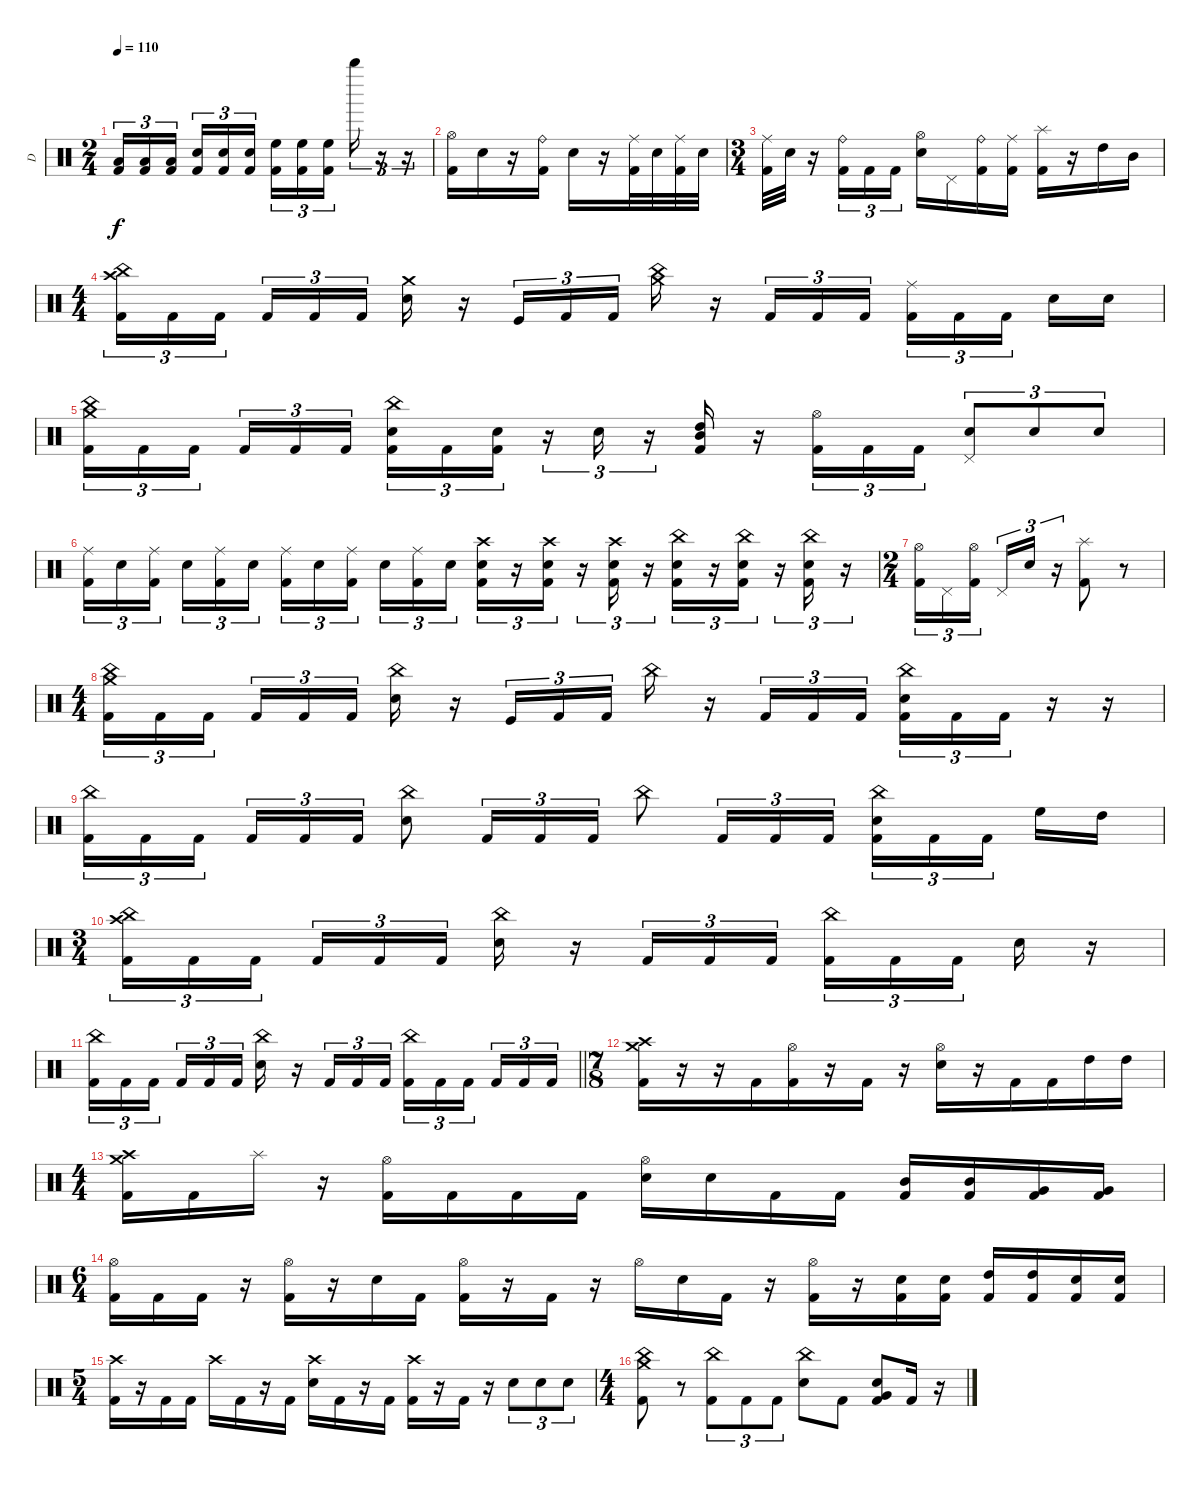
\track ("D" "D") {instrument percussion}
\staff {score}
\articulation defaults
\ts (2 4)
\tempo 110
\clef neutral
\ks c
("Low Tom (hit)" "Kick (hit) 2").16{tu (3 2) dy f} ("Low Tom (hit)" "Kick (hit) 2").16{tu (3 2)} ("Low Tom (hit)" "Kick (hit) 2").16{tu (3 2) beam splitsecondary} ("Electric Snare (hit)" "Kick (hit) 2").16{tu (3 2)} ("Electric Snare (hit)" "Kick (hit) 2").16{tu (3 2)} ("Electric Snare (hit)" "Kick (hit) 2").16{tu (3 2)} ("High Floor Tom (hit)" "Kick (hit) 2").16{tu (3 2)} ("High Floor Tom (hit)" "Kick (hit) 2").16{tu (3 2)} ("High Floor Tom (hit)" "Kick (hit) 2").16{tu (3 2) beam splitsecondary} "Whistle high (hit)".16{tu (3 2)} r.16{tu (3 2)} r.16{tu (3 2)} |
("Hi-Hat (open)" "Kick (hit) 2").16 "Electric Snare (hit)".16 r.16 ("Ride (bell)" "Kick (hit) 2").16 "Electric Snare (hit)".16 r.16 ("Ride (middle)" "Kick (hit) 2").32 "Electric Snare (hit)".32 ("Ride (middle)" "Kick (hit) 2").32 "Electric Snare (hit)".32 |
\ts (3 4)
("Ride (middle)" "Kick (hit) 2").32 "Electric Snare (hit)".32 r.16 ("Ride (bell)" "Kick (hit) 2").16{tu (3 2)} "Kick (hit) 2".16{tu (3 2)} "Kick (hit) 2".16{tu (3 2)} ("Hi-Hat (open)" "Electric Snare (hit)").16 "Pedal Hi-Hat (hit)".16 ("Ride (bell)" "Kick (hit) 2").16 ("Ride (middle)" "Kick (hit) 2").16 ("Splash (hit)" "Kick (hit) 2").16 r.16 "High Tom (hit)".16 "Mid Tom (hit)".16 |
\ts (4 4)
("China (hit)" "Crash high (hit)" "Kick (hit) 2").16{tu (3 2)} "Kick (hit) 2".16{tu (3 2)} "Kick (hit) 2".16{tu (3 2) beam splitsecondary} "Kick (hit) 2".16{tu (3 2)} "Kick (hit) 2".16{tu (3 2)} "Kick (hit) 2".16{tu (3 2)} ("Crash medium (hit)" "Electric Snare (hit)").16 r.16 "Kick (hit)".16{tu (3 2)} "Kick (hit) 2".16{tu (3 2)} "Kick (hit) 2".16{tu (3 2)} ("China (hit)" "Crash medium (hit)").16 r.16 "Kick (hit) 2".16{tu (3 2)} "Kick (hit) 2".16{tu (3 2)} "Kick (hit) 2".16{tu (3 2)} ("Ride (middle)" "Kick (hit) 2").16{tu (3 2)} "Kick (hit) 2".16{tu (3 2)} "Kick (hit) 2".16{tu (3 2) beam splitsecondary} "Electric Snare (hit)".16 "Electric Snare (hit)".16 |
("China (hit)" "Crash medium (hit)" "Kick (hit) 2").16{tu (3 2)} "Kick (hit) 2".16{tu (3 2)} "Kick (hit) 2".16{tu (3 2) beam splitsecondary} "Kick (hit) 2".16{tu (3 2)} "Kick (hit) 2".16{tu (3 2)} "Kick (hit) 2".16{tu (3 2)} ("China (hit)" "Electric Snare (hit)" "Kick (hit) 2").16{tu (3 2)} "Kick (hit) 2".16{tu (3 2)} ("Electric Snare (hit)" "Kick (hit) 2").16{tu (3 2)} r.16{tu (3 2)} "Electric Snare (hit)".16{tu (3 2)} r.16{tu (3 2)} ("High Tom (hit)" "Mid Tom (hit)" "Kick (hit) 2").16 r.16 ("Hi-Hat (open)" "Kick (hit) 2").16{tu (3 2)} "Kick (hit) 2".16{tu (3 2)} "Kick (hit) 2".16{tu (3 2)} ("Pedal Hi-Hat (hit)" "Electric Snare (hit)").8{tu (3 2)} "Electric Snare (hit)".8{tu (3 2)} "Electric Snare (hit)".8{tu (3 2)} |
("Ride (middle)" "Kick (hit) 2").16{tu (3 2)} "Electric Snare (hit)".16{tu (3 2)} ("Ride (middle)" "Kick (hit) 2").16{tu (3 2) beam splitsecondary} "Electric Snare (hit)".16{tu (3 2)} ("Ride (middle)" "Kick (hit) 2").16{tu (3 2)} "Electric Snare (hit)".16{tu (3 2)} ("Ride (middle)" "Kick (hit) 2").16{tu (3 2)} "Electric Snare (hit)".16{tu (3 2)} ("Ride (middle)" "Kick (hit) 2").16{tu (3 2) beam splitsecondary} "Electric Snare (hit)".16{tu (3 2)} ("Ride (middle)" "Kick (hit) 2").16{tu (3 2)} "Electric Snare (hit)".16{tu (3 2)} ("Crash high (hit)" "Electric Snare (hit)" "Kick (hit) 2").16{tu (3 2)} r.16{tu (3 2)} ("Crash high (hit)" "Electric Snare (hit)" "Kick (hit) 2").16{tu (3 2)} r.16{tu (3 2)} ("Crash high (hit)" "Electric Snare (hit)" "Kick (hit) 2").16{tu (3 2)} r.16{tu (3 2)} ("China (hit)" "Electric Snare (hit)" "Kick (hit) 2").16{tu (3 2)} r.16{tu (3 2)} ("China (hit)" "Electric Snare (hit)" "Kick (hit) 2").16{tu (3 2)} r.16{tu (3 2)} ("China (hit)" "Electric Snare (hit)" "Kick (hit) 2").16{tu (3 2)} r.16{tu (3 2)} |
\ts (2 4)
("Hi-Hat (open)" "Kick (hit) 2").16{tu (3 2)} "Pedal Hi-Hat (hit)".16{tu (3 2)} ("Hi-Hat (open)" "Kick (hit) 2").16{tu (3 2) beam splitsecondary} "Pedal Hi-Hat (hit)".16{tu (3 2)} "Electric Snare (hit)".16{tu (3 2)} r.16{tu (3 2)} ("Splash (hit)" "Kick (hit) 2").8 r.8 |
\ts (4 4)
("China (hit)" "Crash medium (hit)" "Kick (hit) 2").16{tu (3 2)} "Kick (hit) 2".16{tu (3 2)} "Kick (hit) 2".16{tu (3 2) beam splitsecondary} "Kick (hit) 2".16{tu (3 2)} "Kick (hit) 2".16{tu (3 2)} "Kick (hit) 2".16{tu (3 2)} ("China (hit)" "Electric Snare (hit)").16 r.16 "Kick (hit)".16{tu (3 2)} "Kick (hit) 2".16{tu (3 2)} "Kick (hit) 2".16{tu (3 2)} "China (hit)".16 r.16 "Kick (hit) 2".16{tu (3 2)} "Kick (hit) 2".16{tu (3 2)} "Kick (hit) 2".16{tu (3 2)} ("China (hit)" "Electric Snare (hit)" "Kick (hit) 2").16{tu (3 2)} "Kick (hit) 2".16{tu (3 2)} "Kick (hit) 2".16{tu (3 2)} r.16 r.16 |
("China (hit)" "Kick (hit) 2").16{tu (3 2)} "Kick (hit) 2".16{tu (3 2)} "Kick (hit) 2".16{tu (3 2) beam splitsecondary} "Kick (hit) 2".16{tu (3 2)} "Kick (hit) 2".16{tu (3 2)} "Kick (hit) 2".16{tu (3 2)} ("China (hit)" "Electric Snare (hit)").8 "Kick (hit) 2".16{tu (3 2)} "Kick (hit) 2".16{tu (3 2)} "Kick (hit) 2".16{tu (3 2)} "China (hit)".8 "Kick (hit) 2".16{tu (3 2)} "Kick (hit) 2".16{tu (3 2)} "Kick (hit) 2".16{tu (3 2)} ("China (hit)" "Electric Snare (hit)" "Kick (hit) 2").16{tu (3 2)} "Kick (hit) 2".16{tu (3 2)} "Kick (hit) 2".16{tu (3 2) beam splitsecondary} "High Floor Tom (hit)".16 "High Tom (hit)".16 |
\ts (3 4)
("China (hit)" "Crash high (hit)" "Kick (hit) 2").16{tu (3 2)} "Kick (hit) 2".16{tu (3 2)} "Kick (hit) 2".16{tu (3 2) beam splitsecondary} "Kick (hit) 2".16{tu (3 2)} "Kick (hit) 2".16{tu (3 2)} "Kick (hit) 2".16{tu (3 2)} ("China (hit)" "Electric Snare (hit)").16 r.16 "Kick (hit) 2".16{tu (3 2)} "Kick (hit) 2".16{tu (3 2)} "Kick (hit) 2".16{tu (3 2)} ("China (hit)" "Kick (hit) 2").16{tu (3 2)} "Kick (hit) 2".16{tu (3 2)} "Kick (hit) 2".16{tu (3 2) beam splitsecondary} "Electric Snare (hit)".16 r.16 |
\barLineRight lightlight
("China (hit)" "Kick (hit) 2").16{tu (3 2)} "Kick (hit) 2".16{tu (3 2)} "Kick (hit) 2".16{tu (3 2) beam splitsecondary} "Kick (hit) 2".16{tu (3 2)} "Kick (hit) 2".16{tu (3 2)} "Kick (hit) 2".16{tu (3 2)} ("China (hit)" "Electric Snare (hit)").16 r.16 "Kick (hit) 2".16{tu (3 2)} "Kick (hit) 2".16{tu (3 2)} "Kick (hit) 2".16{tu (3 2)} ("China (hit)" "Kick (hit) 2").16{tu (3 2)} "Kick (hit) 2".16{tu (3 2)} "Kick (hit) 2".16{tu (3 2) beam splitsecondary} "Kick (hit) 2".16{tu (3 2)} "Kick (hit) 2".16{tu (3 2)} "Kick (hit) 2".16{tu (3 2)} |
\ts (7 8)
("Crash medium (hit)" "Crash high (hit)" "Kick (hit) 2").16 r.16 r.16 "Kick (hit) 2".16 ("Hi-Hat (open)" "Kick (hit) 2").16 r.16 "Kick (hit) 2".16 r.16 ("Hi-Hat (open)" "Electric Snare (hit)").16 r.16 "Kick (hit) 2".16 "Kick (hit) 2".16 "High Tom (hit)".16 "High Tom (hit)".16 |
\ts (4 4)
("Crash medium (hit)" "Crash high (hit)" "Kick (hit) 2").16 "Kick (hit) 2".16 "Splash (hit)".16 r.16 ("Hi-Hat (open)" "Kick (hit) 2").16 "Kick (hit) 2".16 "Kick (hit) 2".16 "Kick (hit) 2".16 ("Hi-Hat (open)" "Electric Snare (hit)").16 "Electric Snare (hit)".16 "Kick (hit) 2".16 "Kick (hit) 2".16 ("Mid Tom (hit)" "Kick (hit) 2").16 ("Mid Tom (hit)" "Kick (hit) 2").16 ("Very Low Tom (hit)" "Kick (hit) 2").16 ("Very Low Tom (hit)" "Kick (hit) 2").16 |
\ts (6 4)
("Hi-Hat (open)" "Kick (hit) 2").16 "Kick (hit) 2".16 "Kick (hit) 2".16 r.16 ("Hi-Hat (open)" "Kick (hit) 2").16 r.16 "Electric Snare (hit)".16 "Kick (hit) 2".16 ("Hi-Hat (open)" "Kick (hit) 2").16 r.16 "Kick (hit) 2".16 r.16 "Hi-Hat (open)".16 "Electric Snare (hit)".16 "Kick (hit) 2".16 r.16 ("Hi-Hat (open)" "Kick (hit) 2").16 r.16 ("Electric Snare (hit)" "Kick (hit) 2").16 ("Electric Snare (hit)" "Kick (hit) 2").16 ("High Tom (hit)" "Kick (hit) 2").16 ("High Tom (hit)" "Kick (hit) 2").16 ("Electric Snare (hit)" "Kick (hit) 2").16 ("Electric Snare (hit)" "Kick (hit) 2").16 |
\ts (5 4)
("Crash high (hit)" "Kick (hit) 2").16 r.16 "Kick (hit) 2".16 "Kick (hit) 2".16 "Crash high (hit)".16 "Kick (hit) 2".16 r.16 "Kick (hit) 2".16 ("Crash high (hit)" "Electric Snare (hit)").16 "Kick (hit) 2".16 r.16 "Kick (hit) 2".16 ("Crash high (hit)" "Kick (hit) 2").16 r.16 "Kick (hit) 2".16 r.16 "Electric Snare (hit)".8{tu (3 2)} "Electric Snare (hit)".8{tu (3 2)} "Electric Snare (hit)".8{tu (3 2)} |
\ts (4 4)
("China (hit)" "Crash medium (hit)" "Kick (hit) 2").8 r.8 ("China (hit)" "Kick (hit) 2").8{tu (3 2)} "Kick (hit) 2".8{tu (3 2)} "Kick (hit) 2".8{tu (3 2)} ("China (hit)" "Electric Snare (hit)").8 "Kick (hit) 2".8 ("Electric Snare (hit)" "Very Low Tom (hit)" "Kick (hit) 2").8 "Kick (hit) 2".16 r.16
